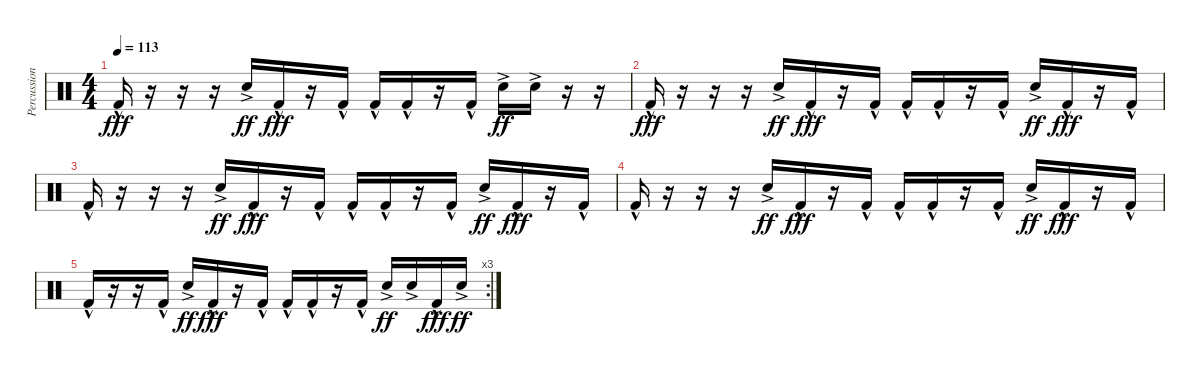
\track ("Percussion" "Percussion") {instrument percussion}
\staff {score}
\articulation defaults
\ts (4 4)
\tempo 113
\clef neutral
\ks c "Kick (hit) 2"{hac}.16{dy fff}
r.16 r.16 r.16 "Snare (hit) 2"{ac}.16{dy ff} "Kick (hit) 2"{hac}.16{dy fff} r.16 "Kick (hit) 2"{hac}.16 "Kick (hit) 2"{hac}.16 "Kick (hit) 2"{hac}.16 r.16 "Kick (hit) 2"{hac}.16 "Snare (hit) 2"{ac}.16{dy ff} "Snare (hit) 2"{ac}.16 r.16 r.16 |
"Kick (hit) 2"{hac}.16{dy fff} r.16 r.16 r.16 "Snare (hit) 2"{ac}.16{dy ff} "Kick (hit) 2"{hac}.16{dy fff} r.16 "Kick (hit) 2"{hac}.16 "Kick (hit) 2"{hac}.16 "Kick (hit) 2"{hac}.16 r.16 "Kick (hit) 2"{hac}.16 "Snare (hit) 2"{ac}.16{dy ff} "Kick (hit) 2"{hac}.16{dy fff} r.16 "Kick (hit) 2"{hac}.16 |
"Kick (hit) 2"{hac}.16 r.16 r.16 r.16 "Snare (hit) 2"{ac}.16{dy ff} "Kick (hit) 2"{hac}.16{dy fff} r.16 "Kick (hit) 2"{hac}.16 "Kick (hit) 2"{hac}.16 "Kick (hit) 2"{hac}.16 r.16 "Kick (hit) 2"{hac}.16 "Snare (hit) 2"{ac}.16{dy ff} "Kick (hit) 2"{hac}.16{dy fff} r.16 "Kick (hit) 2"{hac}.16 |
"Kick (hit) 2"{hac}.16 r.16 r.16 r.16 "Snare (hit) 2"{ac}.16{dy ff} "Kick (hit) 2"{hac}.16{dy fff} r.16 "Kick (hit) 2"{hac}.16 "Kick (hit) 2"{hac}.16 "Kick (hit) 2"{hac}.16 r.16 "Kick (hit) 2"{hac}.16 "Snare (hit) 2"{ac}.16{dy ff} "Kick (hit) 2"{hac}.16{dy fff} r.16 "Kick (hit) 2"{hac}.16 |
\rc 3 "Kick (hit) 2"{hac}.16
r.16 r.16 "Kick (hit) 2"{hac}.16 "Snare (hit) 2"{ac}.16{dy ff} "Kick (hit) 2"{hac}.16{dy fff} r.16 "Kick (hit) 2"{hac}.16 "Kick (hit) 2"{hac}.16 "Kick (hit) 2"{hac}.16 r.16 "Kick (hit) 2"{hac}.16 "Snare (hit) 2"{ac}.16{dy ff} "Snare (hit) 2"{ac}.16 "Kick (hit) 2"{hac}.16{dy fff} "Snare (hit) 2"{ac}.16{dy ff}
